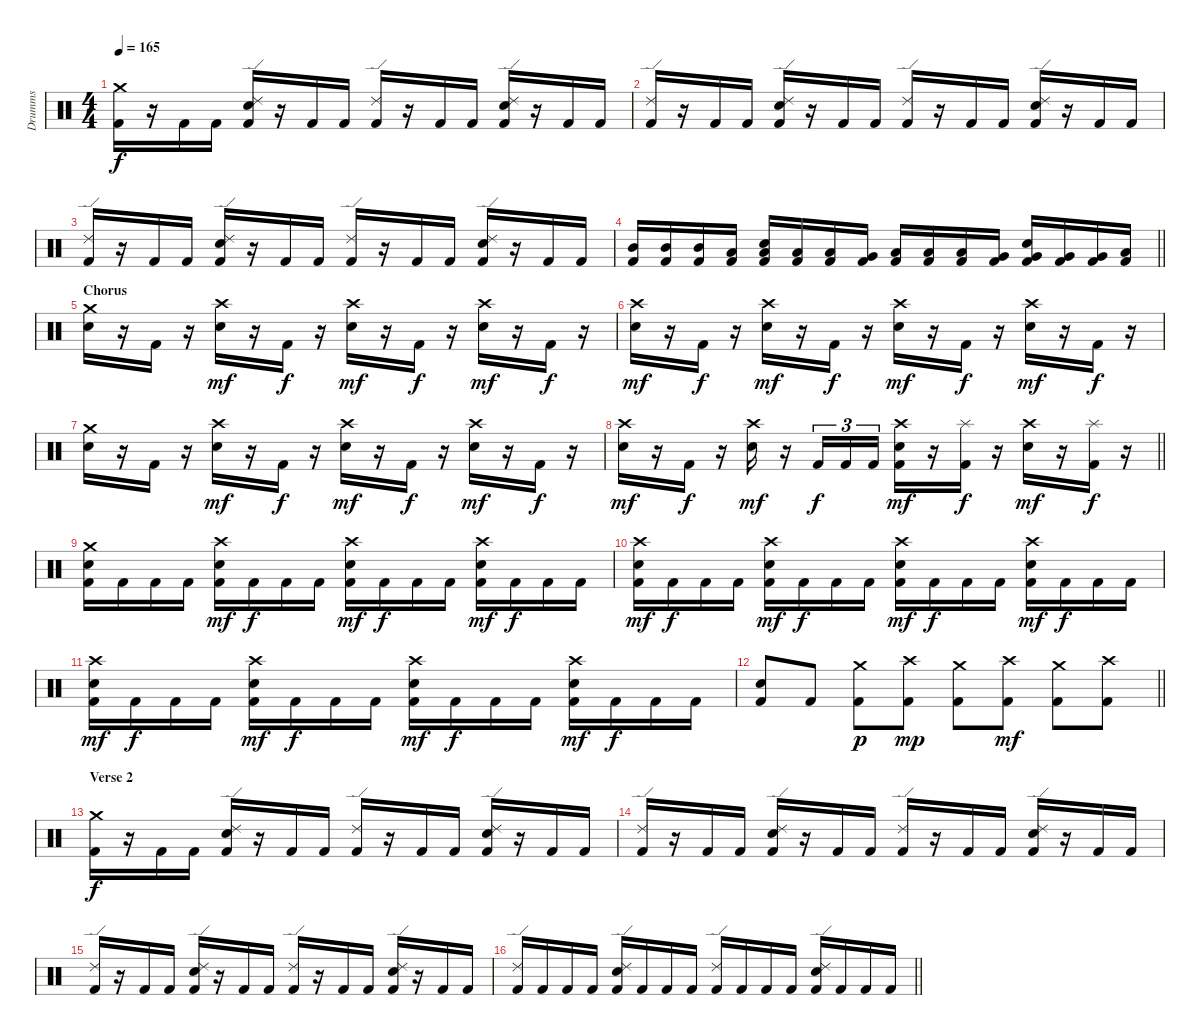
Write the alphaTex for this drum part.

\track ("Drumms" "Drumms") {instrument percussion}
\staff {score}
\articulation defaults
\ts (4 4)
\tempo 165
\clef neutral
\ks c
("Crash medium (hit)" "Kick (hit) 2").16{dy f} r.16 "Kick (hit) 2".16 "Kick (hit) 2".16 ("Ride (edge) 2" "Snare (hit) 2" "Kick (hit) 2").16 r.16 "Kick (hit) 2".16 "Kick (hit) 2".16 ("Ride (edge) 2" "Kick (hit) 2").16 r.16 "Kick (hit) 2".16 "Kick (hit) 2".16 ("Ride (edge) 2" "Snare (hit) 2" "Kick (hit) 2").16 r.16 "Kick (hit) 2".16 "Kick (hit) 2".16 |
("Ride (edge) 2" "Kick (hit) 2").16 r.16 "Kick (hit) 2".16 "Kick (hit) 2".16 ("Ride (edge) 2" "Snare (hit) 2" "Kick (hit) 2").16 r.16 "Kick (hit) 2".16 "Kick (hit) 2".16 ("Ride (edge) 2" "Kick (hit) 2").16 r.16 "Kick (hit) 2".16 "Kick (hit) 2".16 ("Ride (edge) 2" "Snare (hit) 2" "Kick (hit) 2").16 r.16 "Kick (hit) 2".16 "Kick (hit) 2".16 |
("Ride (edge) 2" "Kick (hit) 2").16 r.16 "Kick (hit) 2".16 "Kick (hit) 2".16 ("Ride (edge) 2" "Snare (hit) 2" "Kick (hit) 2").16 r.16 "Kick (hit) 2".16 "Kick (hit) 2".16 ("Ride (edge) 2" "Kick (hit) 2").16 r.16 "Kick (hit) 2".16 "Kick (hit) 2".16 ("Ride (edge) 2" "Snare (hit) 2" "Kick (hit) 2").16 r.16 "Kick (hit) 2".16 "Kick (hit) 2".16 |
\barLineRight lightlight
("Mid Tom (hit)" "Kick (hit) 2").16 ("Mid Tom (hit)" "Kick (hit) 2").16 ("Mid Tom (hit)" "Kick (hit) 2").16 ("Low Tom (hit)" "Kick (hit) 2").16 ("Low Tom (hit)" "Snare (hit) 2" "Kick (hit) 2").16 ("Low Tom (hit)" "Kick (hit) 2").16 ("Low Tom (hit)" "Kick (hit) 2").16 ("Very Low Tom (hit)" "Kick (hit) 2").16 ("Low Tom (hit)" "Kick (hit) 2").16 ("Low Tom (hit)" "Kick (hit) 2").16 ("Low Tom (hit)" "Kick (hit) 2").16 ("Very Low Tom (hit)" "Kick (hit) 2").16 ("Very Low Tom (hit)" "Snare (hit) 2" "Kick (hit) 2").16 ("Very Low Tom (hit)" "Kick (hit) 2").16 ("Very Low Tom (hit)" "Kick (hit) 2").16 ("Low Floor Tom (hit)" "Kick (hit) 2").16 |
\section ("" "Chorus")
("Crash medium (hit)" "Snare (hit) 2").16 r.16 "Kick (hit) 2".16 r.16 ("Crash high (hit)" "Snare (hit) 2").16{dy mf} r.16 "Kick (hit) 2".16{dy f} r.16 ("Crash high (hit)" "Snare (hit) 2").16{dy mf} r.16 "Kick (hit) 2".16{dy f} r.16 ("Crash high (hit)" "Snare (hit) 2").16{dy mf} r.16 "Kick (hit) 2".16{dy f} r.16 |
("Crash high (hit)" "Snare (hit) 2").16{dy mf} r.16 "Kick (hit) 2".16{dy f} r.16 ("Crash high (hit)" "Snare (hit) 2").16{dy mf} r.16 "Kick (hit) 2".16{dy f} r.16 ("Crash high (hit)" "Snare (hit) 2").16{dy mf} r.16 "Kick (hit) 2".16{dy f} r.16 ("Crash high (hit)" "Snare (hit) 2").16{dy mf} r.16 "Kick (hit) 2".16{dy f} r.16 |
("Crash medium (hit)" "Snare (hit) 2").16 r.16 "Kick (hit) 2".16 r.16 ("Crash high (hit)" "Snare (hit) 2").16{dy mf} r.16 "Kick (hit) 2".16{dy f} r.16 ("Crash high (hit)" "Snare (hit) 2").16{dy mf} r.16 "Kick (hit) 2".16{dy f} r.16 ("Crash high (hit)" "Snare (hit) 2").16{dy mf} r.16 "Kick (hit) 2".16{dy f} r.16 |
\barLineRight lightlight
("Crash high (hit)" "Snare (hit) 2").16{dy mf} r.16 "Kick (hit) 2".16{dy f} r.16 ("Crash high (hit)" "Snare (hit) 2").16{dy mf} r.16 "Kick (hit) 2".16{tu (3 2) dy f} "Kick (hit) 2".16{tu (3 2)} "Kick (hit) 2".16{tu (3 2)} ("Crash high (hit)" "Snare (hit) 2" "Kick (hit) 2").16{dy mf} r.16 ("Splash (hit)" "Kick (hit) 2").16{dy f} r.16 ("Crash high (hit)" "Snare (hit) 2").16{dy mf} r.16 ("Splash (hit)" "Kick (hit) 2").16{dy f} r.16 |
("Crash medium (hit)" "Snare (hit) 2" "Kick (hit) 2").16 "Kick (hit) 2".16 "Kick (hit) 2".16 "Kick (hit) 2".16 ("Crash high (hit)" "Snare (hit) 2" "Kick (hit) 2").16{dy mf} "Kick (hit) 2".16{dy f} "Kick (hit) 2".16 "Kick (hit) 2".16 ("Crash high (hit)" "Snare (hit) 2" "Kick (hit) 2").16{dy mf} "Kick (hit) 2".16{dy f} "Kick (hit) 2".16 "Kick (hit) 2".16 ("Crash high (hit)" "Snare (hit) 2" "Kick (hit) 2").16{dy mf} "Kick (hit) 2".16{dy f} "Kick (hit) 2".16 "Kick (hit) 2".16 |
("Crash high (hit)" "Snare (hit) 2" "Kick (hit) 2").16{dy mf} "Kick (hit) 2".16{dy f} "Kick (hit) 2".16 "Kick (hit) 2".16 ("Crash high (hit)" "Snare (hit) 2" "Kick (hit) 2").16{dy mf} "Kick (hit) 2".16{dy f} "Kick (hit) 2".16 "Kick (hit) 2".16 ("Crash high (hit)" "Snare (hit) 2" "Kick (hit) 2").16{dy mf} "Kick (hit) 2".16{dy f} "Kick (hit) 2".16 "Kick (hit) 2".16 ("Crash high (hit)" "Snare (hit) 2" "Kick (hit) 2").16{dy mf} "Kick (hit) 2".16{dy f} "Kick (hit) 2".16 "Kick (hit) 2".16 |
("Crash high (hit)" "Snare (hit) 2" "Kick (hit) 2").16{dy mf} "Kick (hit) 2".16{dy f} "Kick (hit) 2".16 "Kick (hit) 2".16 ("Crash high (hit)" "Snare (hit) 2" "Kick (hit) 2").16{dy mf} "Kick (hit) 2".16{dy f} "Kick (hit) 2".16 "Kick (hit) 2".16 ("Crash high (hit)" "Snare (hit) 2" "Kick (hit) 2").16{dy mf} "Kick (hit) 2".16{dy f} "Kick (hit) 2".16 "Kick (hit) 2".16 ("Crash high (hit)" "Snare (hit) 2" "Kick (hit) 2").16{dy mf} "Kick (hit) 2".16{dy f} "Kick (hit) 2".16 "Kick (hit) 2".16 |
\barLineRight lightlight
("Snare (hit) 2" "Kick (hit) 2").8 "Kick (hit) 2".8 ("Crash medium (hit)" "Kick (hit) 2").8{dy p} ("Crash high (hit)" "Kick (hit) 2").8{dy mp} ("Crash medium (hit)" "Kick (hit) 2").8 ("Crash high (hit)" "Kick (hit) 2").8{dy mf} ("Crash medium (hit)" "Kick (hit) 2").8 ("Crash high (hit)" "Kick (hit) 2").8 |
\section ("" "Verse 2")
("Crash medium (hit)" "Kick (hit) 2").16{dy f} r.16 "Kick (hit) 2".16 "Kick (hit) 2".16 ("Ride (edge) 2" "Snare (hit) 2" "Kick (hit) 2").16 r.16 "Kick (hit) 2".16 "Kick (hit) 2".16 ("Ride (edge) 2" "Kick (hit) 2").16 r.16 "Kick (hit) 2".16 "Kick (hit) 2".16 ("Ride (edge) 2" "Snare (hit) 2" "Kick (hit) 2").16 r.16 "Kick (hit) 2".16 "Kick (hit) 2".16 |
("Ride (edge) 2" "Kick (hit) 2").16 r.16 "Kick (hit) 2".16 "Kick (hit) 2".16 ("Ride (edge) 2" "Snare (hit) 2" "Kick (hit) 2").16 r.16 "Kick (hit) 2".16 "Kick (hit) 2".16 ("Ride (edge) 2" "Kick (hit) 2").16 r.16 "Kick (hit) 2".16 "Kick (hit) 2".16 ("Ride (edge) 2" "Snare (hit) 2" "Kick (hit) 2").16 r.16 "Kick (hit) 2".16 "Kick (hit) 2".16 |
("Ride (edge) 2" "Kick (hit) 2").16 r.16 "Kick (hit) 2".16 "Kick (hit) 2".16 ("Ride (edge) 2" "Snare (hit) 2" "Kick (hit) 2").16 r.16 "Kick (hit) 2".16 "Kick (hit) 2".16 ("Ride (edge) 2" "Kick (hit) 2").16 r.16 "Kick (hit) 2".16 "Kick (hit) 2".16 ("Ride (edge) 2" "Snare (hit) 2" "Kick (hit) 2").16 r.16 "Kick (hit) 2".16 "Kick (hit) 2".16 |
\barLineRight lightlight
("Ride (edge) 2" "Kick (hit) 2").16 "Kick (hit) 2".16 "Kick (hit) 2".16 "Kick (hit) 2".16 ("Ride (edge) 2" "Snare (hit) 2" "Kick (hit) 2").16 "Kick (hit) 2".16 "Kick (hit) 2".16 "Kick (hit) 2".16 ("Ride (edge) 2" "Kick (hit) 2").16 "Kick (hit) 2".16 "Kick (hit) 2".16 "Kick (hit) 2".16 ("Ride (edge) 2" "Snare (hit) 2" "Kick (hit) 2").16 "Kick (hit) 2".16 "Kick (hit) 2".16 "Kick (hit) 2".16
